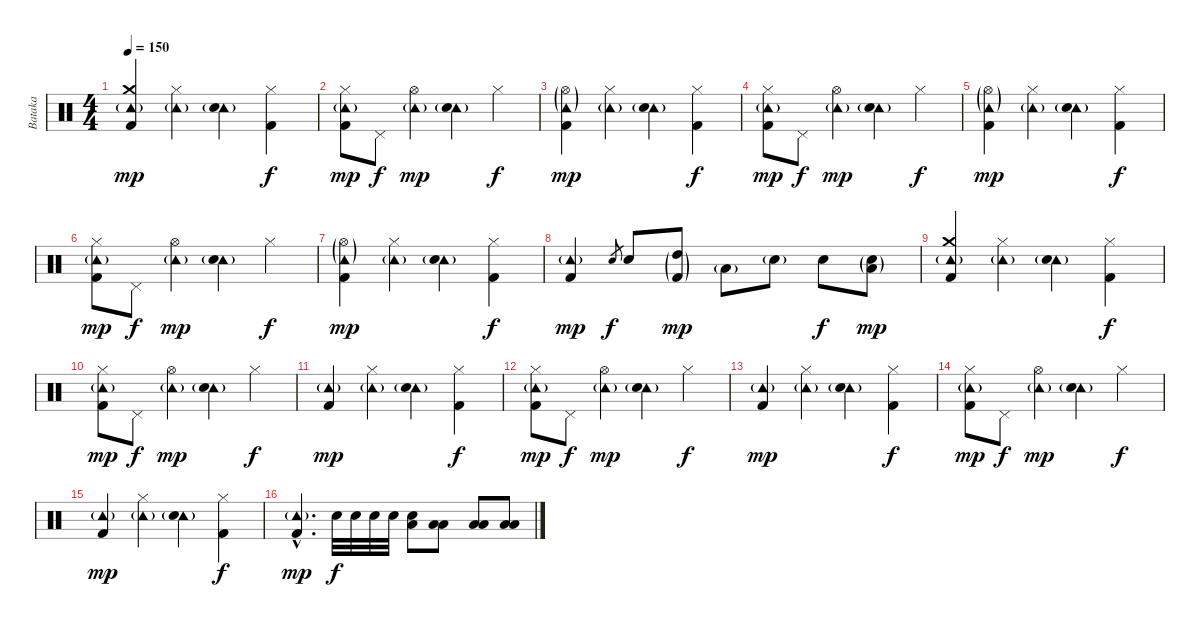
\track ("Bataka" "Bataka") {instrument percussion}
\staff {score}
\articulation defaults
\ts (4 4)
\tempo 150
\clef neutral
\ks c
("Tambourine (hit)"{g} "Crash medium (hit)" "Kick (hit) 2").4{dy mp} ("Tambourine (hit)"{g} "Hi-Hat (closed)").4 ("Tambourine (hit)"{g} "Electric Snare (hit)").4 ("Hi-Hat (closed)" "Kick (hit) 2").4{dy f} |
("Tambourine (hit)"{g} "Hi-Hat (closed)" "Kick (hit) 2").8{dy mp} "Pedal Hi-Hat (hit)".8{dy f} ("Tambourine (hit)"{g} "Hi-Hat (open)").4{dy mp} ("Tambourine (hit)"{g} "Electric Snare (hit)").4 "Hi-Hat (closed)".4{dy f} |
("Tambourine (hit)"{g} "Hi-Hat (open)"{g} "Kick (hit) 2").4{dy mp} ("Tambourine (hit)"{g} "Hi-Hat (closed)").4 ("Tambourine (hit)"{g} "Electric Snare (hit)").4 ("Hi-Hat (closed)" "Kick (hit) 2").4{dy f} |
("Tambourine (hit)"{g} "Hi-Hat (closed)" "Kick (hit) 2").8{dy mp} "Pedal Hi-Hat (hit)".8{dy f} ("Tambourine (hit)"{g} "Hi-Hat (open)").4{dy mp} ("Tambourine (hit)"{g} "Electric Snare (hit)").4 "Hi-Hat (closed)".4{dy f} |
("Tambourine (hit)"{g} "Hi-Hat (open)"{g} "Kick (hit) 2").4{dy mp} ("Tambourine (hit)"{g} "Hi-Hat (closed)").4 ("Tambourine (hit)"{g} "Electric Snare (hit)").4 ("Hi-Hat (closed)" "Kick (hit) 2").4{dy f} |
("Tambourine (hit)"{g} "Hi-Hat (closed)" "Kick (hit) 2").8{dy mp} "Pedal Hi-Hat (hit)".8{dy f} ("Tambourine (hit)"{g} "Hi-Hat (open)").4{dy mp} ("Tambourine (hit)"{g} "Electric Snare (hit)").4 "Hi-Hat (closed)".4{dy f} |
("Tambourine (hit)"{g} "Hi-Hat (open)"{g} "Kick (hit) 2").4{dy mp} ("Tambourine (hit)"{g} "Hi-Hat (closed)").4 ("Tambourine (hit)"{g} "Electric Snare (hit)").4 ("Hi-Hat (closed)" "Kick (hit) 2").4{dy f} |
("Tambourine (hit)"{g} "Kick (hit) 2").4{dy mp} "Electric Snare (hit)".8{gr dy f} "Electric Snare (hit)".8 ("High Tom (hit)"{g} "Kick (hit) 2"{g}).8{dy mp} "Low Tom (hit)"{g}.8 "Electric Snare (hit)"{g}.8 "Electric Snare (hit)".8{dy f} ("Electric Snare (hit)"{g} "Low Floor Tom (hit)"{g}).8{dy mp} |
("Tambourine (hit)"{g} "Crash medium (hit)" "Kick (hit) 2").4 ("Tambourine (hit)"{g} "Hi-Hat (closed)").4 ("Tambourine (hit)"{g} "Electric Snare (hit)").4 ("Hi-Hat (closed)" "Kick (hit) 2").4{dy f} |
("Tambourine (hit)"{g} "Hi-Hat (closed)" "Kick (hit) 2").8{dy mp} "Pedal Hi-Hat (hit)".8{dy f} ("Tambourine (hit)"{g} "Hi-Hat (open)").4{dy mp} ("Tambourine (hit)"{g} "Electric Snare (hit)").4 "Hi-Hat (closed)".4{dy f} |
("Tambourine (hit)"{g} "Kick (hit) 2").4{dy mp} ("Tambourine (hit)"{g} "Hi-Hat (closed)").4 ("Tambourine (hit)"{g} "Electric Snare (hit)").4 ("Hi-Hat (closed)" "Kick (hit) 2").4{dy f} |
("Tambourine (hit)"{g} "Hi-Hat (closed)" "Kick (hit) 2").8{dy mp} "Pedal Hi-Hat (hit)".8{dy f} ("Tambourine (hit)"{g} "Hi-Hat (open)").4{dy mp} ("Tambourine (hit)"{g} "Electric Snare (hit)").4 "Hi-Hat (closed)".4{dy f} |
("Tambourine (hit)"{g} "Kick (hit) 2").4{dy mp} ("Tambourine (hit)"{g} "Hi-Hat (closed)").4 ("Tambourine (hit)"{g} "Electric Snare (hit)").4 ("Hi-Hat (closed)" "Kick (hit) 2").4{dy f} |
("Tambourine (hit)"{g} "Hi-Hat (closed)" "Kick (hit) 2").8{dy mp} "Pedal Hi-Hat (hit)".8{dy f} ("Tambourine (hit)"{g} "Hi-Hat (open)").4{dy mp} ("Tambourine (hit)"{g} "Electric Snare (hit)").4 "Hi-Hat (closed)".4{dy f} |
("Tambourine (hit)"{g} "Kick (hit) 2").4{dy mp} ("Tambourine (hit)"{g} "Hi-Hat (closed)").4 ("Tambourine (hit)"{g} "Electric Snare (hit)").4 ("Hi-Hat (closed)" "Kick (hit) 2").4{dy f} |
("Tambourine (hit)"{g hac} "Kick (hit) 2"{hac}).4{d dy mp volume 12} "Electric Snare (hit)".32{dy f} "Electric Snare (hit)".32 "Electric Snare (hit)".32 "Electric Snare (hit)".32 ("Low Floor Tom (hit)" "Electric Snare (hit)").8 ("Low Tom (hit)" "Low Tom (hit)").8 ("Low Floor Tom (hit)" "Low Floor Tom (hit)").8 ("Low Floor Tom (hit)" "Low Floor Tom (hit)").8
